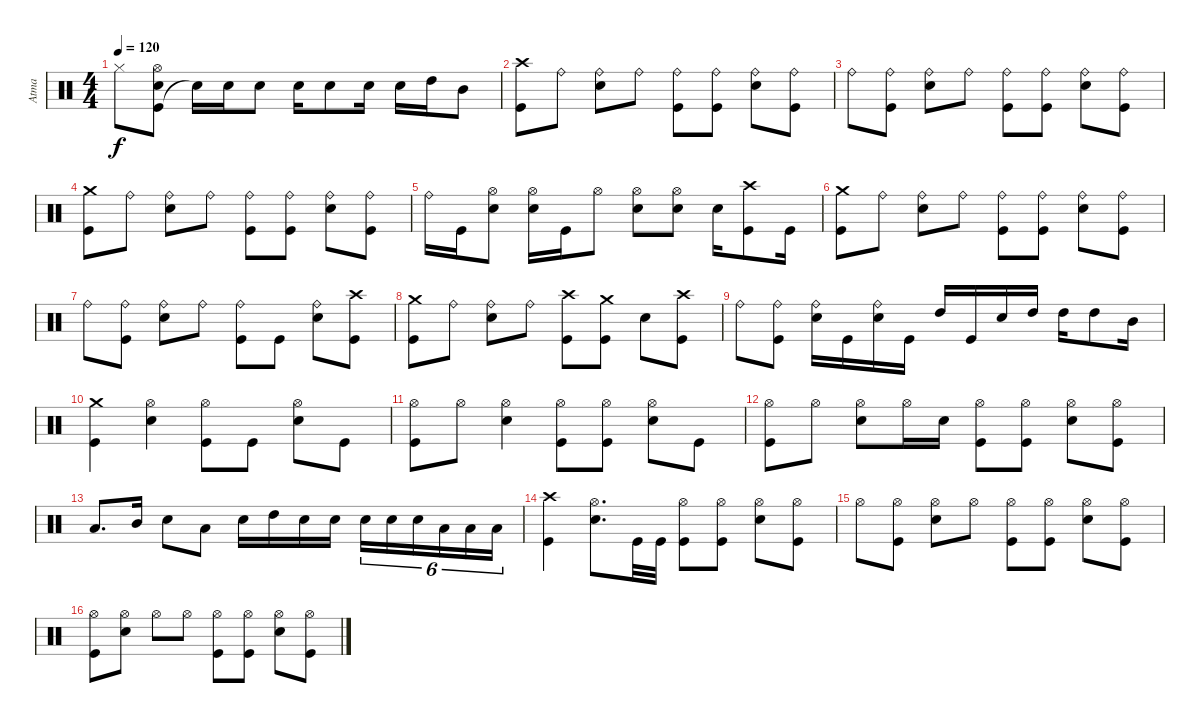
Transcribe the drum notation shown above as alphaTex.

\track ("Atma" "Atma") {instrument percussion}
\staff {score}
\articulation defaults
\ts (4 4)
\tempo 120
\clef neutral
\ks c "Hi-Hat (closed)".8{dy f}
("Kick (hit)" "Snare (hit) 2" "Hi-Hat (open)").8 "Snare (hit)"{t}.16 "Snare (hit) 2".16 "Snare (hit) 2".8 "Snare (hit) 2".16 "Snare (hit) 2".8 "Snare (hit) 2".16 "Snare (hit) 2".16 "High Tom (hit)".16 "Mid Tom (hit)".8 |
("Kick (hit)" "Crash high (hit)").8 "Ride (bell)".8 ("Snare (hit) 2" "Ride (bell)").8 "Ride (bell)".8 ("Kick (hit)" "Ride (bell)").8 ("Kick (hit)" "Ride (bell)").8 ("Snare (hit) 2" "Ride (bell)").8 ("Kick (hit)" "Ride (bell)").8 |
"Ride (bell)".8 ("Kick (hit)" "Ride (bell)").8 ("Snare (hit) 2" "Ride (bell)").8 "Ride (bell)".8 ("Kick (hit)" "Ride (bell)").8 ("Kick (hit)" "Ride (bell)").8 ("Snare (hit) 2" "Ride (bell)").8 ("Kick (hit)" "Ride (bell)").8 |
("Kick (hit)" "Crash medium (hit)").8 "Ride (bell)".8 ("Snare (hit) 2" "Ride (bell)").8 "Ride (bell)".8 ("Kick (hit)" "Ride (bell)").8 ("Kick (hit)" "Ride (bell)").8 ("Snare (hit) 2" "Ride (bell)").8 ("Kick (hit)" "Ride (bell)").8 |
"Ride (bell)".16 "Kick (hit)".16 ("Snare (hit) 2" "Hi-Hat (open)").8 ("Snare (hit) 2" "Hi-Hat (open)").16 "Kick (hit)".16 "Hi-Hat (open)".8 ("Snare (hit) 2" "Hi-Hat (open)").8 ("Snare (hit) 2" "Hi-Hat (open)").8 "Snare (hit) 2".16 ("Kick (hit)" "Crash high (hit)").8 "Kick (hit)".16 |
("Kick (hit)" "Crash medium (hit)").8 "Ride (bell)".8 ("Snare (hit) 2" "Ride (bell)").8 "Ride (bell)".8 ("Kick (hit)" "Ride (bell)").8 ("Kick (hit)" "Ride (bell)").8 ("Snare (hit) 2" "Ride (bell)").8 ("Kick (hit)" "Ride (bell)").8 |
"Ride (bell)".8 ("Kick (hit)" "Ride (bell)").8 ("Snare (hit) 2" "Ride (bell)").8 "Ride (bell)".8 ("Kick (hit)" "Ride (bell)").8 "Kick (hit)".8 ("Snare (hit) 2" "Ride (bell)").8 ("Kick (hit)" "Crash high (hit)").8 |
("Kick (hit)" "Crash medium (hit)").8 "Ride (bell)".8 ("Snare (hit) 2" "Ride (bell)").8 "Ride (bell)".8 ("Kick (hit)" "Crash high (hit)").8 ("Kick (hit)" "Crash medium (hit)").8 "Snare (hit) 2".8 ("Kick (hit)" "Crash high (hit)").8 |
"Ride (bell)".8 ("Kick (hit)" "Ride (bell)").8 ("Snare (hit) 2" "Ride (bell)").16 "Kick (hit)".16 ("Snare (hit) 2" "Ride (bell)").16 "Kick (hit)".16 "High Tom (hit)".16 "Kick (hit)".16 "Snare (hit) 2".16 "High Tom (hit)".16 "High Tom (hit)".16 "High Tom (hit)".8 "Mid Tom (hit)".16 |
("Kick (hit)" "Crash medium (hit)").4 ("Snare (hit) 2" "Hi-Hat (open)").4 ("Kick (hit)" "Hi-Hat (open)").8 "Kick (hit)".8 ("Snare (hit) 2" "Hi-Hat (open)").8 "Kick (hit)".8 |
("Kick (hit)" "Hi-Hat (open)").8 "Hi-Hat (open)".8 ("Snare (hit) 2" "Hi-Hat (open)").4 ("Kick (hit)" "Hi-Hat (open)").8 ("Kick (hit)" "Hi-Hat (open)").8 ("Snare (hit) 2" "Hi-Hat (open)").8 "Kick (hit)".8 |
("Kick (hit)" "Hi-Hat (open)").8 "Hi-Hat (open)".8 ("Snare (hit) 2" "Hi-Hat (open)").8 "Hi-Hat (open)".16 "Snare (hit) 2".16 ("Kick (hit)" "Hi-Hat (open)").8 ("Kick (hit)" "Hi-Hat (open)").8 ("Snare (hit) 2" "Hi-Hat (open)").8 ("Kick (hit)" "Hi-Hat (open)").8 |
"Low Floor Tom (hit)".8{d} "Mid Tom (hit)".16 "Snare (hit) 2".8 "Low Tom (hit)".8 "Snare (hit) 2".16 "High Tom (hit)".16 "Snare (hit) 2".16 "Snare (hit) 2".16 "Snare (hit) 2".16{tu (6 4)} "Snare (hit) 2".16{tu (6 4)} "Snare (hit) 2".16{tu (6 4)} "Low Tom (hit)".16{tu (6 4)} "Low Tom (hit)".16{tu (6 4)} "Low Tom (hit)".16{tu (6 4)} |
("Kick (hit)" "Crash high (hit)").4 ("Snare (hit) 2" "Hi-Hat (open)").8{d} "Kick (hit)".32 "Kick (hit)".32 ("Kick (hit)" "Hi-Hat (open)").8 ("Kick (hit)" "Hi-Hat (open)").8 ("Snare (hit) 2" "Hi-Hat (open)").8 ("Kick (hit)" "Hi-Hat (open)").8 |
"Hi-Hat (open)".8 ("Kick (hit)" "Hi-Hat (open)").8 ("Snare (hit) 2" "Hi-Hat (open)").8 "Hi-Hat (open)".8 ("Kick (hit)" "Hi-Hat (open)").8 ("Kick (hit)" "Hi-Hat (open)").8 ("Snare (hit) 2" "Hi-Hat (open)").8 ("Kick (hit)" "Hi-Hat (open)").8 |
("Kick (hit)" "Hi-Hat (open)").8 ("Snare (hit) 2" "Hi-Hat (open)").8 "Hi-Hat (open)".8 "Hi-Hat (open)".8 ("Kick (hit)" "Hi-Hat (open)").8 ("Kick (hit)" "Hi-Hat (open)").8 ("Snare (hit) 2" "Hi-Hat (open)").8 ("Kick (hit)" "Hi-Hat (open)").8
